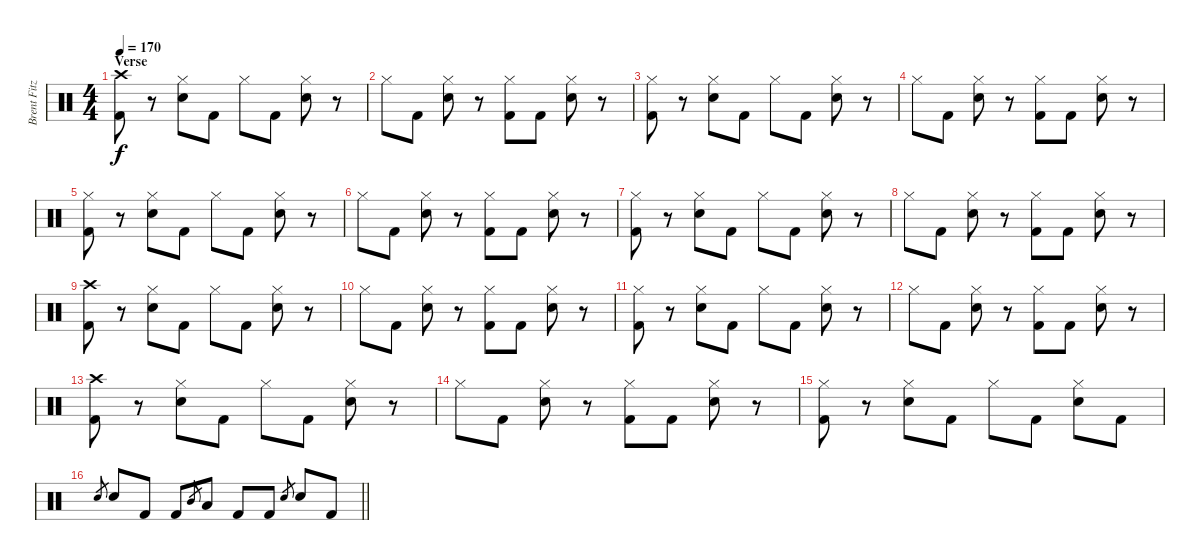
\track ("Brent Fitz" "Brent Fitz") {instrument percussion}
\staff {score}
\articulation defaults
\ts (4 4)
\section ("" "Verse")
\tempo 170
\clef neutral
\ks c
("Crash high (hit)" "Kick (hit) 2").8{dy f} r.8 ("Hi-Hat (closed)" "Electric Snare (hit)").8 "Kick (hit) 2".8 "Hi-Hat (closed)".8 "Kick (hit) 2".8 ("Hi-Hat (closed)" "Electric Snare (hit)").8 r.8 |
"Hi-Hat (closed)".8 "Kick (hit) 2".8 ("Hi-Hat (closed)" "Electric Snare (hit)").8 r.8 ("Hi-Hat (closed)" "Kick (hit) 2").8 "Kick (hit) 2".8 ("Hi-Hat (closed)" "Electric Snare (hit)").8 r.8 |
("Hi-Hat (closed)" "Kick (hit) 2").8 r.8 ("Hi-Hat (closed)" "Electric Snare (hit)").8 "Kick (hit) 2".8 "Hi-Hat (closed)".8 "Kick (hit) 2".8 ("Hi-Hat (closed)" "Electric Snare (hit)").8 r.8 |
"Hi-Hat (closed)".8 "Kick (hit) 2".8 ("Hi-Hat (closed)" "Electric Snare (hit)").8 r.8 ("Hi-Hat (closed)" "Kick (hit) 2").8 "Kick (hit) 2".8 ("Hi-Hat (closed)" "Electric Snare (hit)").8 r.8 |
("Hi-Hat (closed)" "Kick (hit) 2").8 r.8 ("Hi-Hat (closed)" "Electric Snare (hit)").8 "Kick (hit) 2".8 "Hi-Hat (closed)".8 "Kick (hit) 2".8 ("Hi-Hat (closed)" "Electric Snare (hit)").8 r.8 |
"Hi-Hat (closed)".8 "Kick (hit) 2".8 ("Hi-Hat (closed)" "Electric Snare (hit)").8 r.8 ("Hi-Hat (closed)" "Kick (hit) 2").8 "Kick (hit) 2".8 ("Hi-Hat (closed)" "Electric Snare (hit)").8 r.8 |
("Hi-Hat (closed)" "Kick (hit) 2").8 r.8 ("Hi-Hat (closed)" "Electric Snare (hit)").8 "Kick (hit) 2".8 "Hi-Hat (closed)".8 "Kick (hit) 2".8 ("Hi-Hat (closed)" "Electric Snare (hit)").8 r.8 |
"Hi-Hat (closed)".8 "Kick (hit) 2".8 ("Hi-Hat (closed)" "Electric Snare (hit)").8 r.8 ("Hi-Hat (closed)" "Kick (hit) 2").8 "Kick (hit) 2".8 ("Hi-Hat (closed)" "Electric Snare (hit)").8 r.8 |
("Crash high (hit)" "Kick (hit) 2").8 r.8 ("Hi-Hat (closed)" "Electric Snare (hit)").8 "Kick (hit) 2".8 "Hi-Hat (closed)".8 "Kick (hit) 2".8 ("Hi-Hat (closed)" "Electric Snare (hit)").8 r.8 |
"Hi-Hat (closed)".8 "Kick (hit) 2".8 ("Hi-Hat (closed)" "Electric Snare (hit)").8 r.8 ("Hi-Hat (closed)" "Kick (hit) 2").8 "Kick (hit) 2".8 ("Hi-Hat (closed)" "Electric Snare (hit)").8 r.8 |
("Hi-Hat (closed)" "Kick (hit) 2").8 r.8 ("Hi-Hat (closed)" "Electric Snare (hit)").8 "Kick (hit) 2".8 "Hi-Hat (closed)".8 "Kick (hit) 2".8 ("Hi-Hat (closed)" "Electric Snare (hit)").8 r.8 |
"Hi-Hat (closed)".8 "Kick (hit) 2".8 ("Hi-Hat (closed)" "Electric Snare (hit)").8 r.8 ("Hi-Hat (closed)" "Kick (hit) 2").8 "Kick (hit) 2".8 ("Hi-Hat (closed)" "Electric Snare (hit)").8 r.8 |
("Crash high (hit)" "Kick (hit) 2").8 r.8 ("Hi-Hat (closed)" "Electric Snare (hit)").8 "Kick (hit) 2".8 "Hi-Hat (closed)".8 "Kick (hit) 2".8 ("Hi-Hat (closed)" "Electric Snare (hit)").8 r.8 |
"Hi-Hat (closed)".8 "Kick (hit) 2".8 ("Hi-Hat (closed)" "Electric Snare (hit)").8 r.8 ("Hi-Hat (closed)" "Kick (hit) 2").8 "Kick (hit) 2".8 ("Hi-Hat (closed)" "Electric Snare (hit)").8 r.8 |
("Hi-Hat (closed)" "Kick (hit) 2").8 r.8 ("Hi-Hat (closed)" "Electric Snare (hit)").8 "Kick (hit) 2".8 "Hi-Hat (closed)".8 "Kick (hit) 2".8 ("Hi-Hat (closed)" "Electric Snare (hit)").8 "Kick (hit) 2".8 |
\barLineRight lightlight "Electric Snare (hit)".8{gr} "Electric Snare (hit)".8 "Kick (hit) 2".8 "Kick (hit) 2".8 "Mid Tom (hit)".8{gr} "Low Tom (hit)".8 "Kick (hit) 2".8 "Kick (hit) 2".8 "Electric Snare (hit)".8{gr} "Electric Snare (hit)".8 "Kick (hit) 2".8
